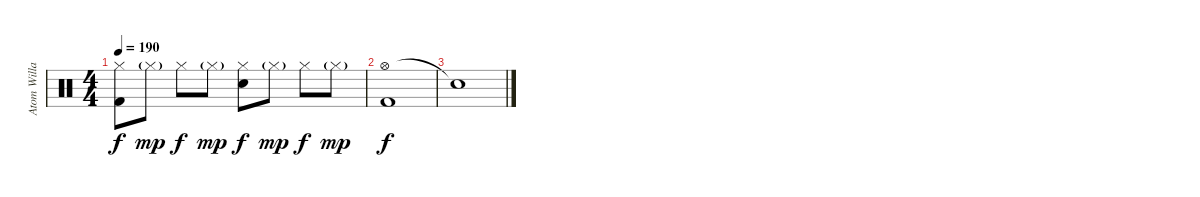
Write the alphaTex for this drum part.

\track ("Atom Willard" "Atom Willa") {instrument percussion}
\staff {score}
\articulation defaults
\ts (4 4)
\tempo 190
\clef neutral
\ks c
("Hi-Hat (closed)" "Kick (hit) 2").8{dy f} "Hi-Hat (closed)"{g}.8{dy mp} "Hi-Hat (closed)".8{dy f} "Hi-Hat (closed)"{g}.8{dy mp} ("Hi-Hat (closed)" "Electric Snare (hit)").8{dy f} "Hi-Hat (closed)"{g}.8{dy mp} "Hi-Hat (closed)".8{dy f} "Hi-Hat (closed)"{g}.8{dy mp} |
("Hi-Hat (open)" "Kick (hit) 2").1{dy f} |
"Snare (hit)"{t}.1
